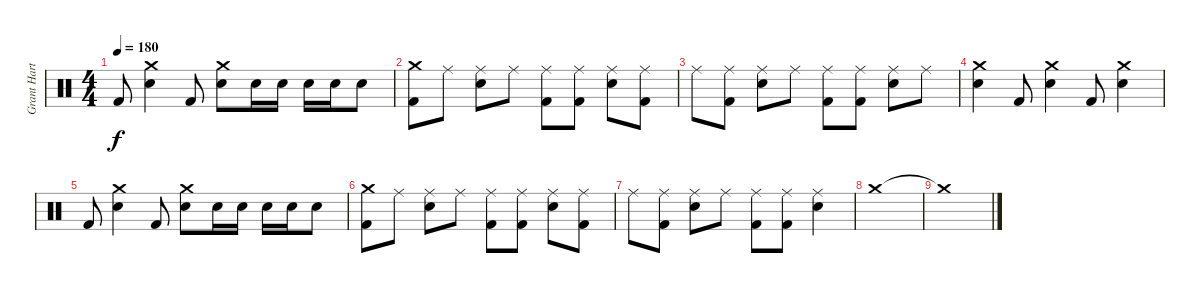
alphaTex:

\track ("Grant Hart - Drums" "Grant Hart") {instrument percussion}
\staff {score}
\articulation defaults
\ts (4 4)
\tempo 180
\clef neutral
\ks c "Kick (hit) 2".8{dy f}
("Crash medium (hit)" "Electric Snare (hit)").4 "Kick (hit) 2".8 ("Crash medium (hit)" "Electric Snare (hit)").8 "Electric Snare (hit)".16 "Electric Snare (hit)".16 "Electric Snare (hit)".16 "Electric Snare (hit)".16 "Electric Snare (hit)".8 |
("Crash medium (hit)" "Kick (hit) 2").8 "Ride (middle)".8 ("Ride (middle)" "Electric Snare (hit)").8 "Ride (middle)".8 ("Ride (middle)" "Kick (hit) 2").8 ("Ride (middle)" "Kick (hit) 2").8 ("Ride (middle)" "Electric Snare (hit)").8 ("Ride (middle)" "Kick (hit) 2").8 |
"Ride (middle)".8 ("Ride (middle)" "Kick (hit) 2").8 ("Ride (middle)" "Electric Snare (hit)").8 "Ride (middle)".8 ("Ride (middle)" "Kick (hit) 2").8 ("Ride (middle)" "Kick (hit) 2").8 ("Ride (middle)" "Electric Snare (hit)").8 "Ride (middle)".8 |
("Crash medium (hit)" "Electric Snare (hit)").4 "Kick (hit) 2".8 ("Crash medium (hit)" "Electric Snare (hit)").4 "Kick (hit) 2".8 ("Crash medium (hit)" "Electric Snare (hit)").4 |
"Kick (hit) 2".8 ("Crash medium (hit)" "Electric Snare (hit)").4 "Kick (hit) 2".8 ("Crash medium (hit)" "Electric Snare (hit)").8 "Electric Snare (hit)".16 "Electric Snare (hit)".16 "Electric Snare (hit)".16 "Electric Snare (hit)".16 "Electric Snare (hit)".8 |
("Crash medium (hit)" "Kick (hit) 2").8 "Ride (middle)".8 ("Ride (middle)" "Electric Snare (hit)").8 "Ride (middle)".8 ("Ride (middle)" "Kick (hit) 2").8 ("Ride (middle)" "Kick (hit) 2").8 ("Ride (middle)" "Electric Snare (hit)").8 ("Ride (middle)" "Kick (hit) 2").8 |
"Ride (middle)".8 ("Ride (middle)" "Kick (hit) 2").8 ("Ride (middle)" "Electric Snare (hit)").8 "Ride (middle)".8 ("Ride (middle)" "Kick (hit) 2").8 ("Ride (middle)" "Kick (hit) 2").8 ("Ride (middle)" "Electric Snare (hit)").4 |
"Crash medium (hit)".1 |
"Crash medium (hit)"{t}.1
